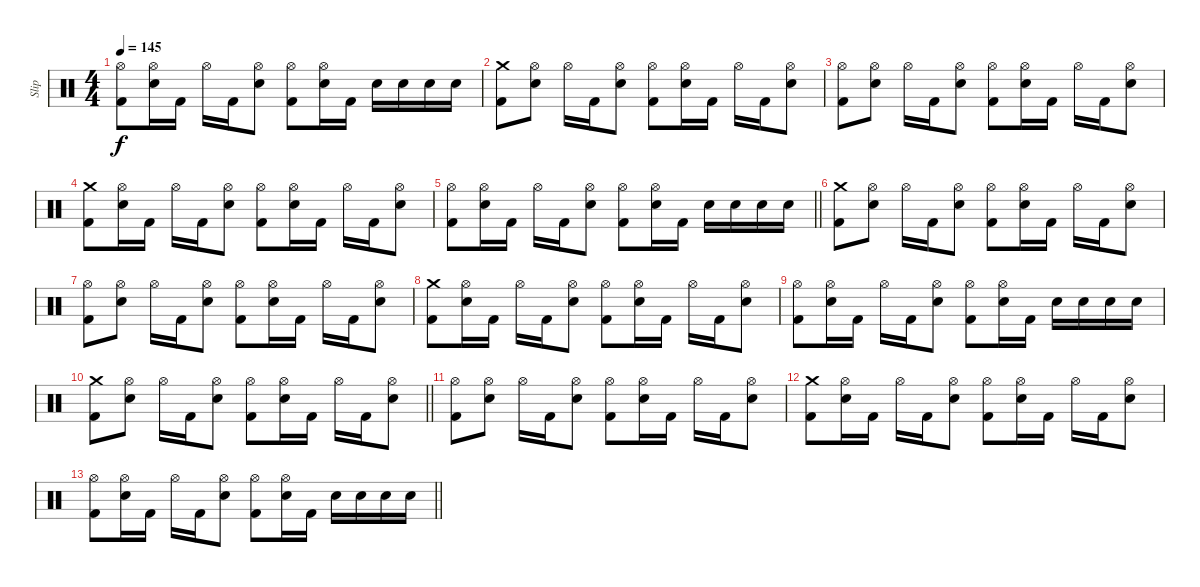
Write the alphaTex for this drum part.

\track ("Slip" "Slip") {instrument percussion}
\staff {score}
\articulation defaults
\ts (4 4)
\tempo 145
\clef neutral
\ks c
("Kick (hit) 2" "Hi-Hat (open)").8{dy f} ("Electric Snare (hit)" "Hi-Hat (open)").16 "Kick (hit) 2".16 "Hi-Hat (open)".16 "Kick (hit) 2".16 ("Electric Snare (hit)" "Hi-Hat (open)").8 ("Kick (hit) 2" "Hi-Hat (open)").8 ("Electric Snare (hit)" "Hi-Hat (open)").16 "Kick (hit) 2".16 "Electric Snare (hit)".16 "Electric Snare (hit)".16 "Electric Snare (hit)".16 "Electric Snare (hit)".16 |
("Kick (hit) 2" "Crash medium (hit)").8 ("Electric Snare (hit)" "Hi-Hat (open)").8 "Hi-Hat (open)".16 "Kick (hit) 2".16 ("Electric Snare (hit)" "Hi-Hat (open)").8 ("Kick (hit) 2" "Hi-Hat (open)").8 ("Electric Snare (hit)" "Hi-Hat (open)").16 "Kick (hit) 2".16 "Hi-Hat (open)".16 "Kick (hit) 2".16 ("Electric Snare (hit)" "Hi-Hat (open)").8 |
("Kick (hit) 2" "Hi-Hat (open)").8 ("Electric Snare (hit)" "Hi-Hat (open)").8 "Hi-Hat (open)".16 "Kick (hit) 2".16 ("Electric Snare (hit)" "Hi-Hat (open)").8 ("Kick (hit) 2" "Hi-Hat (open)").8 ("Electric Snare (hit)" "Hi-Hat (open)").16 "Kick (hit) 2".16 "Hi-Hat (open)".16 "Kick (hit) 2".16 ("Electric Snare (hit)" "Hi-Hat (open)").8 |
("Kick (hit) 2" "Crash medium (hit)").8 ("Electric Snare (hit)" "Hi-Hat (open)").16 "Kick (hit) 2".16 "Hi-Hat (open)".16 "Kick (hit) 2".16 ("Electric Snare (hit)" "Hi-Hat (open)").8 ("Kick (hit) 2" "Hi-Hat (open)").8 ("Electric Snare (hit)" "Hi-Hat (open)").16 "Kick (hit) 2".16 "Hi-Hat (open)".16 "Kick (hit) 2".16 ("Electric Snare (hit)" "Hi-Hat (open)").8 |
\barLineRight lightlight
("Kick (hit) 2" "Hi-Hat (open)").8 ("Electric Snare (hit)" "Hi-Hat (open)").16 "Kick (hit) 2".16 "Hi-Hat (open)".16 "Kick (hit) 2".16 ("Electric Snare (hit)" "Hi-Hat (open)").8 ("Kick (hit) 2" "Hi-Hat (open)").8 ("Electric Snare (hit)" "Hi-Hat (open)").16 "Kick (hit) 2".16 "Electric Snare (hit)".16 "Electric Snare (hit)".16 "Electric Snare (hit)".16 "Electric Snare (hit)".16 |
("Kick (hit) 2" "Crash medium (hit)").8 ("Electric Snare (hit)" "Hi-Hat (open)").8 "Hi-Hat (open)".16 "Kick (hit) 2".16 ("Electric Snare (hit)" "Hi-Hat (open)").8 ("Kick (hit) 2" "Hi-Hat (open)").8 ("Electric Snare (hit)" "Hi-Hat (open)").16 "Kick (hit) 2".16 "Hi-Hat (open)".16 "Kick (hit) 2".16 ("Electric Snare (hit)" "Hi-Hat (open)").8 |
("Kick (hit) 2" "Hi-Hat (open)").8 ("Electric Snare (hit)" "Hi-Hat (open)").8 "Hi-Hat (open)".16 "Kick (hit) 2".16 ("Electric Snare (hit)" "Hi-Hat (open)").8 ("Kick (hit) 2" "Hi-Hat (open)").8 ("Electric Snare (hit)" "Hi-Hat (open)").16 "Kick (hit) 2".16 "Hi-Hat (open)".16 "Kick (hit) 2".16 ("Electric Snare (hit)" "Hi-Hat (open)").8 |
("Kick (hit) 2" "Crash medium (hit)").8 ("Electric Snare (hit)" "Hi-Hat (open)").16 "Kick (hit) 2".16 "Hi-Hat (open)".16 "Kick (hit) 2".16 ("Electric Snare (hit)" "Hi-Hat (open)").8 ("Kick (hit) 2" "Hi-Hat (open)").8 ("Electric Snare (hit)" "Hi-Hat (open)").16 "Kick (hit) 2".16 "Hi-Hat (open)".16 "Kick (hit) 2".16 ("Electric Snare (hit)" "Hi-Hat (open)").8 |
("Kick (hit) 2" "Hi-Hat (open)").8 ("Electric Snare (hit)" "Hi-Hat (open)").16 "Kick (hit) 2".16 "Hi-Hat (open)".16 "Kick (hit) 2".16 ("Electric Snare (hit)" "Hi-Hat (open)").8 ("Kick (hit) 2" "Hi-Hat (open)").8 ("Electric Snare (hit)" "Hi-Hat (open)").16 "Kick (hit) 2".16 "Electric Snare (hit)".16 "Electric Snare (hit)".16 "Electric Snare (hit)".16 "Electric Snare (hit)".16 |
\barLineRight lightlight
("Kick (hit) 2" "Crash medium (hit)").8 ("Electric Snare (hit)" "Hi-Hat (open)").8 "Hi-Hat (open)".16 "Kick (hit) 2".16 ("Electric Snare (hit)" "Hi-Hat (open)").8 ("Kick (hit) 2" "Hi-Hat (open)").8 ("Electric Snare (hit)" "Hi-Hat (open)").16 "Kick (hit) 2".16 "Hi-Hat (open)".16 "Kick (hit) 2".16 ("Electric Snare (hit)" "Hi-Hat (open)").8 |
("Kick (hit) 2" "Hi-Hat (open)").8 ("Electric Snare (hit)" "Hi-Hat (open)").8 "Hi-Hat (open)".16 "Kick (hit) 2".16 ("Electric Snare (hit)" "Hi-Hat (open)").8 ("Kick (hit) 2" "Hi-Hat (open)").8 ("Electric Snare (hit)" "Hi-Hat (open)").16 "Kick (hit) 2".16 "Hi-Hat (open)".16 "Kick (hit) 2".16 ("Electric Snare (hit)" "Hi-Hat (open)").8 |
("Kick (hit) 2" "Crash medium (hit)").8 ("Electric Snare (hit)" "Hi-Hat (open)").16 "Kick (hit) 2".16 "Hi-Hat (open)".16 "Kick (hit) 2".16 ("Electric Snare (hit)" "Hi-Hat (open)").8 ("Kick (hit) 2" "Hi-Hat (open)").8 ("Electric Snare (hit)" "Hi-Hat (open)").16 "Kick (hit) 2".16 "Hi-Hat (open)".16 "Kick (hit) 2".16 ("Electric Snare (hit)" "Hi-Hat (open)").8 |
\barLineRight lightlight
("Kick (hit) 2" "Hi-Hat (open)").8 ("Electric Snare (hit)" "Hi-Hat (open)").16 "Kick (hit) 2".16 "Hi-Hat (open)".16 "Kick (hit) 2".16 ("Electric Snare (hit)" "Hi-Hat (open)").8 ("Kick (hit) 2" "Hi-Hat (open)").8 ("Electric Snare (hit)" "Hi-Hat (open)").16 "Kick (hit) 2".16 "Electric Snare (hit)".16 "Electric Snare (hit)".16 "Electric Snare (hit)".16 "Electric Snare (hit)".16
